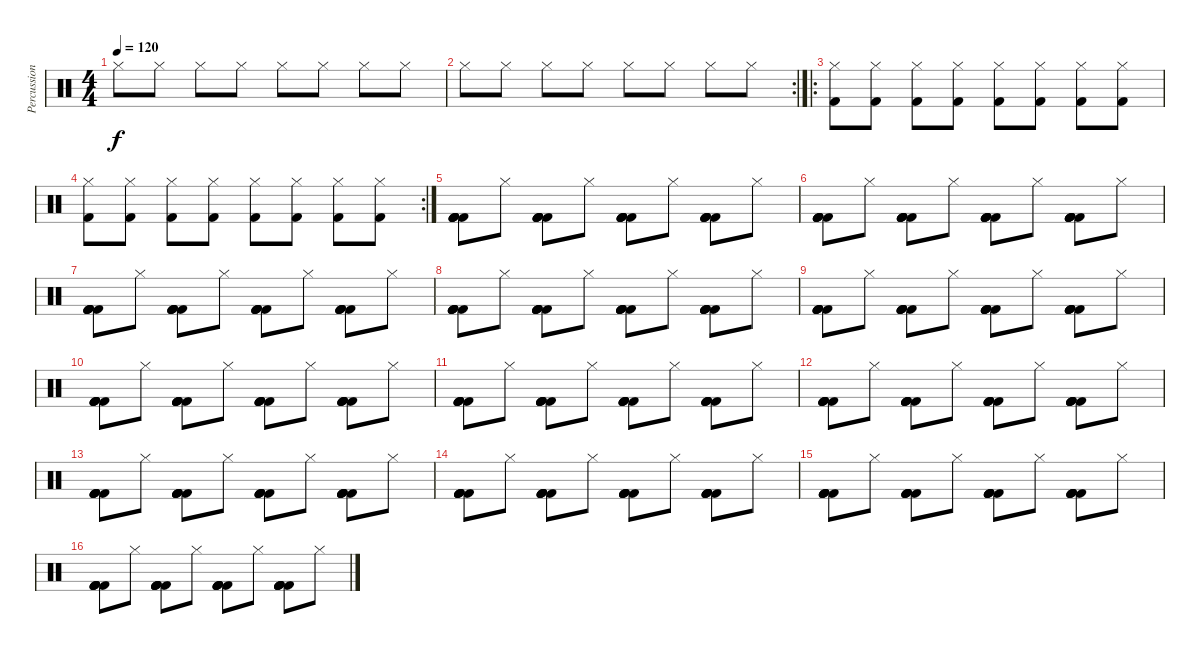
\track ("Percussion" "Percussion") {instrument percussion}
\staff {score}
\articulation defaults
\ts (4 4)
\tempo 120
\clef neutral
\ks c "Hi-Hat (closed)".8{dy f} "Hi-Hat (closed)".8 "Hi-Hat (closed)".8 "Hi-Hat (closed)".8 "Hi-Hat (closed)".8 "Hi-Hat (closed)".8 "Hi-Hat (closed)".8 "Hi-Hat (closed)".8
|
\rc 2 "Hi-Hat (closed)".8 "Hi-Hat (closed)".8 "Hi-Hat (closed)".8 "Hi-Hat (closed)".8 "Hi-Hat (closed)".8 "Hi-Hat (closed)".8 "Hi-Hat (closed)".8 "Hi-Hat (closed)".8
|
\ro
("Hi-Hat (closed)" "Kick (hit) 2").8 ("Hi-Hat (closed)" "Kick (hit) 2").8 ("Hi-Hat (closed)" "Kick (hit) 2").8 ("Hi-Hat (closed)" "Kick (hit) 2").8 ("Hi-Hat (closed)" "Kick (hit) 2").8 ("Hi-Hat (closed)" "Kick (hit) 2").8 ("Hi-Hat (closed)" "Kick (hit) 2").8 ("Hi-Hat (closed)" "Kick (hit) 2").8 |
\rc 2
("Hi-Hat (closed)" "Kick (hit) 2").8 ("Hi-Hat (closed)" "Kick (hit) 2").8 ("Hi-Hat (closed)" "Kick (hit) 2").8 ("Hi-Hat (closed)" "Kick (hit) 2").8 ("Hi-Hat (closed)" "Kick (hit) 2").8 ("Hi-Hat (closed)" "Kick (hit) 2").8 ("Hi-Hat (closed)" "Kick (hit) 2").8 ("Hi-Hat (closed)" "Kick (hit) 2").8 |
("Kick (hit) 2" "Kick (hit) 2" "Kick (hit) 2" "Kick (hit) 2" "Kick (hit) 2").8{volume 16} "Hi-Hat (closed)".8 ("Kick (hit) 2" "Kick (hit) 2" "Kick (hit) 2" "Kick (hit) 2" "Kick (hit) 2").8 "Hi-Hat (closed)".8 ("Kick (hit) 2" "Kick (hit) 2" "Kick (hit) 2" "Kick (hit) 2" "Kick (hit) 2").8 "Hi-Hat (closed)".8 ("Kick (hit) 2" "Kick (hit) 2" "Kick (hit) 2" "Kick (hit) 2" "Kick (hit) 2").8 "Hi-Hat (closed)".8 |
("Kick (hit) 2" "Kick (hit) 2" "Kick (hit) 2" "Kick (hit) 2" "Kick (hit) 2").8 "Hi-Hat (closed)".8 ("Kick (hit) 2" "Kick (hit) 2" "Kick (hit) 2" "Kick (hit) 2" "Kick (hit) 2").8 "Hi-Hat (closed)".8 ("Kick (hit) 2" "Kick (hit) 2" "Kick (hit) 2" "Kick (hit) 2" "Kick (hit) 2").8 "Hi-Hat (closed)".8 ("Kick (hit) 2" "Kick (hit) 2" "Kick (hit) 2" "Kick (hit) 2" "Kick (hit) 2").8 "Hi-Hat (closed)".8 |
("Kick (hit) 2" "Kick (hit) 2" "Kick (hit) 2" "Kick (hit) 2" "Kick (hit) 2").8 "Hi-Hat (closed)".8 ("Kick (hit) 2" "Kick (hit) 2" "Kick (hit) 2" "Kick (hit) 2" "Kick (hit) 2").8 "Hi-Hat (closed)".8 ("Kick (hit) 2" "Kick (hit) 2" "Kick (hit) 2" "Kick (hit) 2" "Kick (hit) 2").8 "Hi-Hat (closed)".8 ("Kick (hit) 2" "Kick (hit) 2" "Kick (hit) 2" "Kick (hit) 2" "Kick (hit) 2").8 "Hi-Hat (closed)".8 |
("Kick (hit) 2" "Kick (hit) 2" "Kick (hit) 2" "Kick (hit) 2" "Kick (hit) 2").8 "Hi-Hat (closed)".8 ("Kick (hit) 2" "Kick (hit) 2" "Kick (hit) 2" "Kick (hit) 2" "Kick (hit) 2").8 "Hi-Hat (closed)".8 ("Kick (hit) 2" "Kick (hit) 2" "Kick (hit) 2" "Kick (hit) 2" "Kick (hit) 2").8 "Hi-Hat (closed)".8 ("Kick (hit) 2" "Kick (hit) 2" "Kick (hit) 2" "Kick (hit) 2" "Kick (hit) 2").8 "Hi-Hat (closed)".8 |
("Kick (hit) 2" "Kick (hit) 2" "Kick (hit) 2" "Kick (hit) 2" "Kick (hit) 2").8 "Hi-Hat (closed)".8 ("Kick (hit) 2" "Kick (hit) 2" "Kick (hit) 2" "Kick (hit) 2" "Kick (hit) 2").8 "Hi-Hat (closed)".8 ("Kick (hit) 2" "Kick (hit) 2" "Kick (hit) 2" "Kick (hit) 2" "Kick (hit) 2").8 "Hi-Hat (closed)".8 ("Kick (hit) 2" "Kick (hit) 2" "Kick (hit) 2" "Kick (hit) 2" "Kick (hit) 2").8 "Hi-Hat (closed)".8 |
("Kick (hit) 2" "Kick (hit) 2" "Kick (hit) 2" "Kick (hit) 2" "Kick (hit) 2").8 "Hi-Hat (closed)".8 ("Kick (hit) 2" "Kick (hit) 2" "Kick (hit) 2" "Kick (hit) 2" "Kick (hit) 2").8 "Hi-Hat (closed)".8 ("Kick (hit) 2" "Kick (hit) 2" "Kick (hit) 2" "Kick (hit) 2" "Kick (hit) 2").8 "Hi-Hat (closed)".8 ("Kick (hit) 2" "Kick (hit) 2" "Kick (hit) 2" "Kick (hit) 2" "Kick (hit) 2").8 "Hi-Hat (closed)".8 |
("Kick (hit) 2" "Kick (hit) 2" "Kick (hit) 2" "Kick (hit) 2" "Kick (hit) 2").8 "Hi-Hat (closed)".8 ("Kick (hit) 2" "Kick (hit) 2" "Kick (hit) 2" "Kick (hit) 2" "Kick (hit) 2").8 "Hi-Hat (closed)".8 ("Kick (hit) 2" "Kick (hit) 2" "Kick (hit) 2" "Kick (hit) 2" "Kick (hit) 2").8 "Hi-Hat (closed)".8 ("Kick (hit) 2" "Kick (hit) 2" "Kick (hit) 2" "Kick (hit) 2" "Kick (hit) 2").8 "Hi-Hat (closed)".8 |
("Kick (hit) 2" "Kick (hit) 2" "Kick (hit) 2" "Kick (hit) 2" "Kick (hit) 2").8 "Hi-Hat (closed)".8 ("Kick (hit) 2" "Kick (hit) 2" "Kick (hit) 2" "Kick (hit) 2" "Kick (hit) 2").8 "Hi-Hat (closed)".8 ("Kick (hit) 2" "Kick (hit) 2" "Kick (hit) 2" "Kick (hit) 2" "Kick (hit) 2").8 "Hi-Hat (closed)".8 ("Kick (hit) 2" "Kick (hit) 2" "Kick (hit) 2" "Kick (hit) 2" "Kick (hit) 2").8 "Hi-Hat (closed)".8 |
("Kick (hit) 2" "Kick (hit) 2" "Kick (hit) 2" "Kick (hit) 2" "Kick (hit) 2").8 "Hi-Hat (closed)".8 ("Kick (hit) 2" "Kick (hit) 2" "Kick (hit) 2" "Kick (hit) 2" "Kick (hit) 2").8 "Hi-Hat (closed)".8 ("Kick (hit) 2" "Kick (hit) 2" "Kick (hit) 2" "Kick (hit) 2" "Kick (hit) 2").8 "Hi-Hat (closed)".8 ("Kick (hit) 2" "Kick (hit) 2" "Kick (hit) 2" "Kick (hit) 2" "Kick (hit) 2").8 "Hi-Hat (closed)".8 |
("Kick (hit) 2" "Kick (hit) 2" "Kick (hit) 2" "Kick (hit) 2" "Kick (hit) 2").8 "Hi-Hat (closed)".8 ("Kick (hit) 2" "Kick (hit) 2" "Kick (hit) 2" "Kick (hit) 2" "Kick (hit) 2").8 "Hi-Hat (closed)".8 ("Kick (hit) 2" "Kick (hit) 2" "Kick (hit) 2" "Kick (hit) 2" "Kick (hit) 2").8 "Hi-Hat (closed)".8 ("Kick (hit) 2" "Kick (hit) 2" "Kick (hit) 2" "Kick (hit) 2" "Kick (hit) 2").8 "Hi-Hat (closed)".8 |
("Kick (hit) 2" "Kick (hit) 2" "Kick (hit) 2" "Kick (hit) 2" "Kick (hit) 2").8 "Hi-Hat (closed)".8 ("Kick (hit) 2" "Kick (hit) 2" "Kick (hit) 2" "Kick (hit) 2" "Kick (hit) 2").8 "Hi-Hat (closed)".8 ("Kick (hit) 2" "Kick (hit) 2" "Kick (hit) 2" "Kick (hit) 2" "Kick (hit) 2").8 "Hi-Hat (closed)".8 ("Kick (hit) 2" "Kick (hit) 2" "Kick (hit) 2" "Kick (hit) 2" "Kick (hit) 2").8 "Hi-Hat (closed)".8 |
("Kick (hit) 2" "Kick (hit) 2" "Kick (hit) 2" "Kick (hit) 2" "Kick (hit) 2").8 "Hi-Hat (closed)".8 ("Kick (hit) 2" "Kick (hit) 2" "Kick (hit) 2" "Kick (hit) 2" "Kick (hit) 2").8 "Hi-Hat (closed)".8 ("Kick (hit) 2" "Kick (hit) 2" "Kick (hit) 2" "Kick (hit) 2" "Kick (hit) 2").8 "Hi-Hat (closed)".8 ("Kick (hit) 2" "Kick (hit) 2" "Kick (hit) 2" "Kick (hit) 2" "Kick (hit) 2").8 "Hi-Hat (closed)".8
